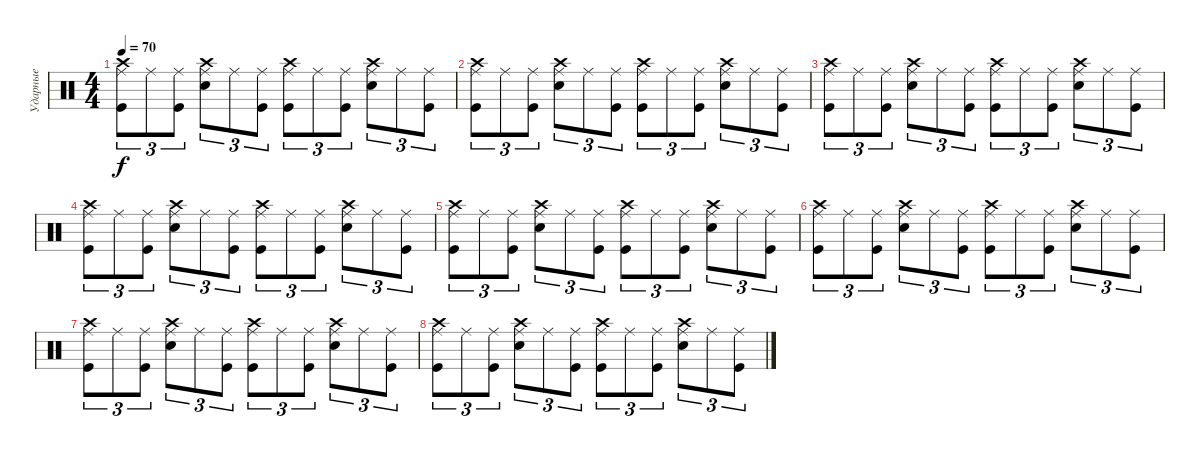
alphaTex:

\track ("Ударные" "Ударные") {instrument percussion}
\staff {score}
\articulation defaults
\ts (4 4)
\tempo 70
\clef neutral
\ks c
("Ride (middle)" "Crash high (hit)" "Kick (hit)").8{tu (3 2) dy f} "Ride (middle)".8{tu (3 2)} ("Ride (middle)" "Kick (hit)").8{tu (3 2)} ("Ride (middle)" "Crash high (hit)" "Snare (hit) 2").8{tu (3 2)} "Ride (middle)".8{tu (3 2)} ("Ride (middle)" "Kick (hit)").8{tu (3 2)} ("Crash high (hit)" "Ride (middle)" "Kick (hit)").8{tu (3 2)} "Ride (middle)".8{tu (3 2)} ("Ride (middle)" "Kick (hit)").8{tu (3 2)} ("Ride (middle)" "Crash high (hit)" "Snare (hit) 2").8{tu (3 2)} "Ride (middle)".8{tu (3 2)} ("Ride (middle)" "Kick (hit)").8{tu (3 2)} |
("Ride (middle)" "Crash high (hit)" "Kick (hit)").8{tu (3 2)} "Ride (middle)".8{tu (3 2)} ("Ride (middle)" "Kick (hit)").8{tu (3 2)} ("Ride (middle)" "Crash high (hit)" "Snare (hit) 2").8{tu (3 2)} "Ride (middle)".8{tu (3 2)} ("Ride (middle)" "Kick (hit)").8{tu (3 2)} ("Crash high (hit)" "Ride (middle)" "Kick (hit)").8{tu (3 2)} "Ride (middle)".8{tu (3 2)} ("Ride (middle)" "Kick (hit)").8{tu (3 2)} ("Ride (middle)" "Crash high (hit)" "Snare (hit) 2").8{tu (3 2)} "Ride (middle)".8{tu (3 2)} ("Ride (middle)" "Kick (hit)").8{tu (3 2)} |
("Ride (middle)" "Crash high (hit)" "Kick (hit)").8{tu (3 2)} "Ride (middle)".8{tu (3 2)} ("Ride (middle)" "Kick (hit)").8{tu (3 2)} ("Ride (middle)" "Crash high (hit)" "Snare (hit) 2").8{tu (3 2)} "Ride (middle)".8{tu (3 2)} ("Ride (middle)" "Kick (hit)").8{tu (3 2)} ("Crash high (hit)" "Ride (middle)" "Kick (hit)").8{tu (3 2)} "Ride (middle)".8{tu (3 2)} ("Ride (middle)" "Kick (hit)").8{tu (3 2)} ("Ride (middle)" "Crash high (hit)" "Snare (hit) 2").8{tu (3 2)} "Ride (middle)".8{tu (3 2)} ("Ride (middle)" "Kick (hit)").8{tu (3 2)} |
("Ride (middle)" "Crash high (hit)" "Kick (hit)").8{tu (3 2)} "Ride (middle)".8{tu (3 2)} ("Ride (middle)" "Kick (hit)").8{tu (3 2)} ("Ride (middle)" "Crash high (hit)" "Snare (hit) 2").8{tu (3 2)} "Ride (middle)".8{tu (3 2)} ("Ride (middle)" "Kick (hit)").8{tu (3 2)} ("Crash high (hit)" "Ride (middle)" "Kick (hit)").8{tu (3 2)} "Ride (middle)".8{tu (3 2)} ("Ride (middle)" "Kick (hit)").8{tu (3 2)} ("Ride (middle)" "Crash high (hit)" "Snare (hit) 2").8{tu (3 2)} "Ride (middle)".8{tu (3 2)} ("Ride (middle)" "Kick (hit)").8{tu (3 2)} |
("Ride (middle)" "Crash high (hit)" "Kick (hit)").8{tu (3 2)} "Ride (middle)".8{tu (3 2)} ("Ride (middle)" "Kick (hit)").8{tu (3 2)} ("Ride (middle)" "Crash high (hit)" "Snare (hit) 2").8{tu (3 2)} "Ride (middle)".8{tu (3 2)} ("Ride (middle)" "Kick (hit)").8{tu (3 2)} ("Crash high (hit)" "Ride (middle)" "Kick (hit)").8{tu (3 2)} "Ride (middle)".8{tu (3 2)} ("Ride (middle)" "Kick (hit)").8{tu (3 2)} ("Ride (middle)" "Crash high (hit)" "Snare (hit) 2").8{tu (3 2)} "Ride (middle)".8{tu (3 2)} ("Ride (middle)" "Kick (hit)").8{tu (3 2)} |
("Ride (middle)" "Crash high (hit)" "Kick (hit)").8{tu (3 2)} "Ride (middle)".8{tu (3 2)} ("Ride (middle)" "Kick (hit)").8{tu (3 2)} ("Ride (middle)" "Crash high (hit)" "Snare (hit) 2").8{tu (3 2)} "Ride (middle)".8{tu (3 2)} ("Ride (middle)" "Kick (hit)").8{tu (3 2)} ("Crash high (hit)" "Ride (middle)" "Kick (hit)").8{tu (3 2)} "Ride (middle)".8{tu (3 2)} ("Ride (middle)" "Kick (hit)").8{tu (3 2)} ("Ride (middle)" "Crash high (hit)" "Snare (hit) 2").8{tu (3 2)} "Ride (middle)".8{tu (3 2)} ("Ride (middle)" "Kick (hit)").8{tu (3 2)} |
("Ride (middle)" "Crash high (hit)" "Kick (hit)").8{tu (3 2)} "Ride (middle)".8{tu (3 2)} ("Ride (middle)" "Kick (hit)").8{tu (3 2)} ("Ride (middle)" "Crash high (hit)" "Snare (hit) 2").8{tu (3 2)} "Ride (middle)".8{tu (3 2)} ("Ride (middle)" "Kick (hit)").8{tu (3 2)} ("Crash high (hit)" "Ride (middle)" "Kick (hit)").8{tu (3 2)} "Ride (middle)".8{tu (3 2)} ("Ride (middle)" "Kick (hit)").8{tu (3 2)} ("Ride (middle)" "Crash high (hit)" "Snare (hit) 2").8{tu (3 2)} "Ride (middle)".8{tu (3 2)} ("Ride (middle)" "Kick (hit)").8{tu (3 2)} |
("Ride (middle)" "Crash high (hit)" "Kick (hit)").8{tu (3 2)} "Ride (middle)".8{tu (3 2)} ("Ride (middle)" "Kick (hit)").8{tu (3 2)} ("Ride (middle)" "Crash high (hit)" "Snare (hit) 2").8{tu (3 2)} "Ride (middle)".8{tu (3 2)} ("Ride (middle)" "Kick (hit)").8{tu (3 2)} ("Crash high (hit)" "Ride (middle)" "Kick (hit)").8{tu (3 2)} "Ride (middle)".8{tu (3 2)} ("Ride (middle)" "Kick (hit)").8{tu (3 2)} ("Ride (middle)" "Crash high (hit)" "Snare (hit) 2").8{tu (3 2)} "Ride (middle)".8{tu (3 2)} ("Ride (middle)" "Kick (hit)").8{tu (3 2)}
